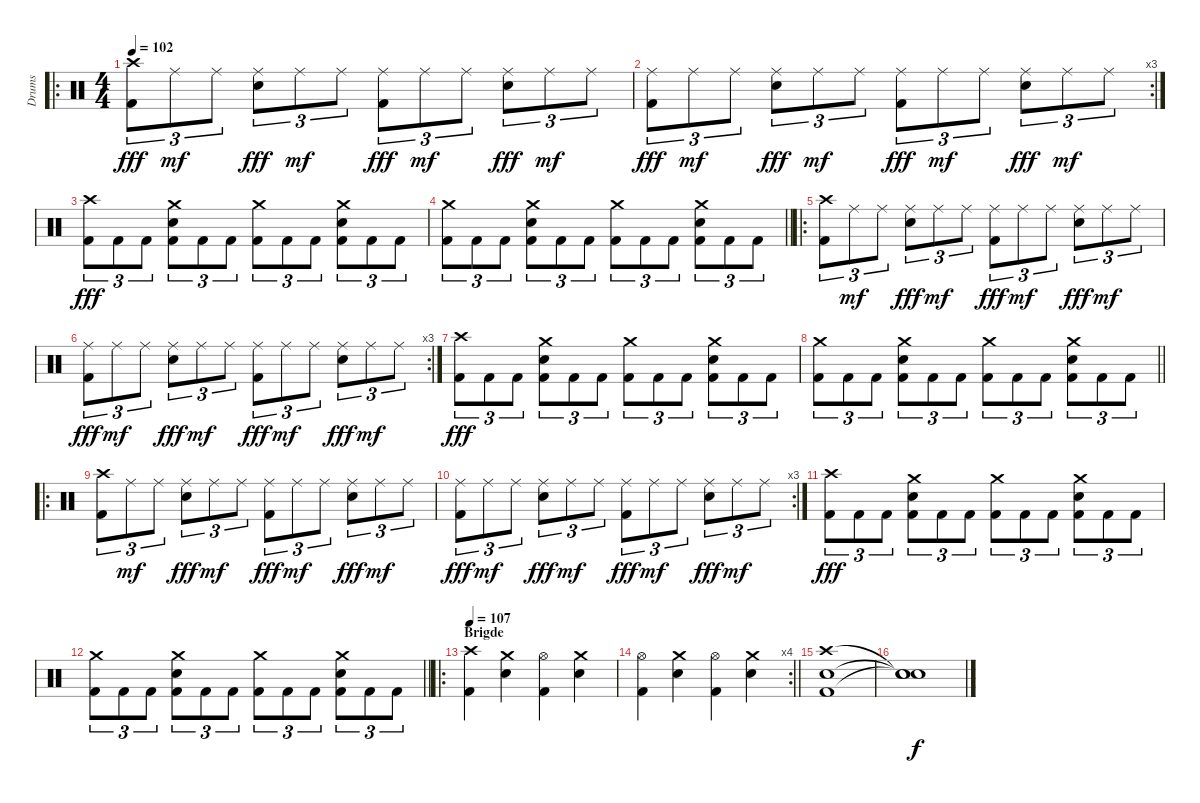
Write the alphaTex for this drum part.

\track ("Drums" "Drums") {instrument percussion}
\staff {score}
\articulation defaults
\ro
\ts (4 4)
\tempo 102
\clef neutral
\ks c
("Crash high (hit)" "Kick (hit) 2").8{tu (3 2) dy fff} "Ride (middle)".8{tu (3 2) dy mf} "Ride (middle)".8{tu (3 2)} ("Ride (middle)" "Electric Snare (hit)").8{tu (3 2) dy fff} "Ride (middle)".8{tu (3 2) dy mf} "Ride (middle)".8{tu (3 2)} ("Ride (middle)" "Kick (hit) 2").8{tu (3 2) dy fff} "Ride (middle)".8{tu (3 2) dy mf} "Ride (middle)".8{tu (3 2)} ("Ride (middle)" "Electric Snare (hit)").8{tu (3 2) dy fff} "Ride (middle)".8{tu (3 2) dy mf} "Ride (middle)".8{tu (3 2)} |
\rc 3
("Ride (middle)" "Kick (hit) 2").8{tu (3 2) dy fff} "Ride (middle)".8{tu (3 2) dy mf} "Ride (middle)".8{tu (3 2)} ("Ride (middle)" "Electric Snare (hit)").8{tu (3 2) dy fff} "Ride (middle)".8{tu (3 2) dy mf} "Ride (middle)".8{tu (3 2)} ("Ride (middle)" "Kick (hit) 2").8{tu (3 2) dy fff} "Ride (middle)".8{tu (3 2) dy mf} "Ride (middle)".8{tu (3 2)} ("Ride (middle)" "Electric Snare (hit)").8{tu (3 2) dy fff} "Ride (middle)".8{tu (3 2) dy mf} "Ride (middle)".8{tu (3 2)} |
("Crash high (hit)" "Kick (hit) 2").8{tu (3 2) dy fff} "Kick (hit) 2".8{tu (3 2)} "Kick (hit) 2".8{tu (3 2)} ("Crash medium (hit)" "Electric Snare (hit)" "Kick (hit) 2").8{tu (3 2)} "Kick (hit) 2".8{tu (3 2)} "Kick (hit) 2".8{tu (3 2)} ("Crash medium (hit)" "Kick (hit) 2").8{tu (3 2)} "Kick (hit) 2".8{tu (3 2)} "Kick (hit) 2".8{tu (3 2)} ("Crash medium (hit)" "Electric Snare (hit)" "Kick (hit) 2").8{tu (3 2)} "Kick (hit) 2".8{tu (3 2)} "Kick (hit) 2".8{tu (3 2)} |
\barLineRight lightlight
("Crash medium (hit)" "Kick (hit) 2").8{tu (3 2)} "Kick (hit) 2".8{tu (3 2)} "Kick (hit) 2".8{tu (3 2)} ("Crash medium (hit)" "Electric Snare (hit)" "Kick (hit) 2").8{tu (3 2)} "Kick (hit) 2".8{tu (3 2)} "Kick (hit) 2".8{tu (3 2)} ("Crash medium (hit)" "Kick (hit) 2").8{tu (3 2)} "Kick (hit) 2".8{tu (3 2)} "Kick (hit) 2".8{tu (3 2)} ("Crash medium (hit)" "Electric Snare (hit)" "Kick (hit) 2").8{tu (3 2)} "Kick (hit) 2".8{tu (3 2)} "Kick (hit) 2".8{tu (3 2)} |
\ro
("Crash high (hit)" "Kick (hit) 2").8{tu (3 2)} "Ride (middle)".8{tu (3 2) dy mf} "Ride (middle)".8{tu (3 2)} ("Ride (middle)" "Electric Snare (hit)").8{tu (3 2) dy fff} "Ride (middle)".8{tu (3 2) dy mf} "Ride (middle)".8{tu (3 2)} ("Ride (middle)" "Kick (hit) 2").8{tu (3 2) dy fff} "Ride (middle)".8{tu (3 2) dy mf} "Ride (middle)".8{tu (3 2)} ("Ride (middle)" "Electric Snare (hit)").8{tu (3 2) dy fff} "Ride (middle)".8{tu (3 2) dy mf} "Ride (middle)".8{tu (3 2)} |
\rc 3
("Ride (middle)" "Kick (hit) 2").8{tu (3 2) dy fff} "Ride (middle)".8{tu (3 2) dy mf} "Ride (middle)".8{tu (3 2)} ("Ride (middle)" "Electric Snare (hit)").8{tu (3 2) dy fff} "Ride (middle)".8{tu (3 2) dy mf} "Ride (middle)".8{tu (3 2)} ("Ride (middle)" "Kick (hit) 2").8{tu (3 2) dy fff} "Ride (middle)".8{tu (3 2) dy mf} "Ride (middle)".8{tu (3 2)} ("Ride (middle)" "Electric Snare (hit)").8{tu (3 2) dy fff} "Ride (middle)".8{tu (3 2) dy mf} "Ride (middle)".8{tu (3 2)} |
("Crash high (hit)" "Kick (hit) 2").8{tu (3 2) dy fff} "Kick (hit) 2".8{tu (3 2)} "Kick (hit) 2".8{tu (3 2)} ("Crash medium (hit)" "Electric Snare (hit)" "Kick (hit) 2").8{tu (3 2)} "Kick (hit) 2".8{tu (3 2)} "Kick (hit) 2".8{tu (3 2)} ("Crash medium (hit)" "Kick (hit) 2").8{tu (3 2)} "Kick (hit) 2".8{tu (3 2)} "Kick (hit) 2".8{tu (3 2)} ("Crash medium (hit)" "Electric Snare (hit)" "Kick (hit) 2").8{tu (3 2)} "Kick (hit) 2".8{tu (3 2)} "Kick (hit) 2".8{tu (3 2)} |
\barLineRight lightlight
("Crash medium (hit)" "Kick (hit) 2").8{tu (3 2)} "Kick (hit) 2".8{tu (3 2)} "Kick (hit) 2".8{tu (3 2)} ("Crash medium (hit)" "Electric Snare (hit)" "Kick (hit) 2").8{tu (3 2)} "Kick (hit) 2".8{tu (3 2)} "Kick (hit) 2".8{tu (3 2)} ("Crash medium (hit)" "Kick (hit) 2").8{tu (3 2)} "Kick (hit) 2".8{tu (3 2)} "Kick (hit) 2".8{tu (3 2)} ("Crash medium (hit)" "Electric Snare (hit)" "Kick (hit) 2").8{tu (3 2)} "Kick (hit) 2".8{tu (3 2)} "Kick (hit) 2".8{tu (3 2)} |
\ro
("Crash high (hit)" "Kick (hit) 2").8{tu (3 2)} "Ride (middle)".8{tu (3 2) dy mf} "Ride (middle)".8{tu (3 2)} ("Ride (middle)" "Electric Snare (hit)").8{tu (3 2) dy fff} "Ride (middle)".8{tu (3 2) dy mf} "Ride (middle)".8{tu (3 2)} ("Ride (middle)" "Kick (hit) 2").8{tu (3 2) dy fff} "Ride (middle)".8{tu (3 2) dy mf} "Ride (middle)".8{tu (3 2)} ("Ride (middle)" "Electric Snare (hit)").8{tu (3 2) dy fff} "Ride (middle)".8{tu (3 2) dy mf} "Ride (middle)".8{tu (3 2)} |
\rc 3
("Ride (middle)" "Kick (hit) 2").8{tu (3 2) dy fff} "Ride (middle)".8{tu (3 2) dy mf} "Ride (middle)".8{tu (3 2)} ("Ride (middle)" "Electric Snare (hit)").8{tu (3 2) dy fff} "Ride (middle)".8{tu (3 2) dy mf} "Ride (middle)".8{tu (3 2)} ("Ride (middle)" "Kick (hit) 2").8{tu (3 2) dy fff} "Ride (middle)".8{tu (3 2) dy mf} "Ride (middle)".8{tu (3 2)} ("Ride (middle)" "Electric Snare (hit)").8{tu (3 2) dy fff} "Ride (middle)".8{tu (3 2) dy mf} "Ride (middle)".8{tu (3 2)} |
("Crash high (hit)" "Kick (hit) 2").8{tu (3 2) dy fff} "Kick (hit) 2".8{tu (3 2)} "Kick (hit) 2".8{tu (3 2)} ("Crash medium (hit)" "Electric Snare (hit)" "Kick (hit) 2").8{tu (3 2)} "Kick (hit) 2".8{tu (3 2)} "Kick (hit) 2".8{tu (3 2)} ("Crash medium (hit)" "Kick (hit) 2").8{tu (3 2)} "Kick (hit) 2".8{tu (3 2)} "Kick (hit) 2".8{tu (3 2)} ("Crash medium (hit)" "Electric Snare (hit)" "Kick (hit) 2").8{tu (3 2)} "Kick (hit) 2".8{tu (3 2)} "Kick (hit) 2".8{tu (3 2)} |
\barLineRight lightlight
("Crash medium (hit)" "Kick (hit) 2").8{tu (3 2)} "Kick (hit) 2".8{tu (3 2)} "Kick (hit) 2".8{tu (3 2)} ("Crash medium (hit)" "Electric Snare (hit)" "Kick (hit) 2").8{tu (3 2)} "Kick (hit) 2".8{tu (3 2)} "Kick (hit) 2".8{tu (3 2)} ("Crash medium (hit)" "Kick (hit) 2").8{tu (3 2)} "Kick (hit) 2".8{tu (3 2)} "Kick (hit) 2".8{tu (3 2)} ("Crash medium (hit)" "Electric Snare (hit)" "Kick (hit) 2").8{tu (3 2)} "Kick (hit) 2".8{tu (3 2)} "Kick (hit) 2".8{tu (3 2)} |
\ro
\section ("" "Brigde")
\tempo 107
("Crash high (hit)" "Kick (hit) 2").4 ("Crash medium (hit)" "Electric Snare (hit)").4 ("Hi-Hat (open)" "Kick (hit) 2").4 ("Crash medium (hit)" "Electric Snare (hit)").4 |
\rc 4
\barLineRight lightlight
("Hi-Hat (open)" "Kick (hit) 2").4 ("Crash medium (hit)" "Electric Snare (hit)").4 ("Hi-Hat (open)" "Kick (hit) 2").4 ("Crash medium (hit)" "Electric Snare (hit)").4 |
("Crash high (hit)" "Electric Snare (hit)" "Kick (hit) 2").1 |
("Snare (hit)"{t} "Snare (hit)"{t} "Snare (hit)"{t}).1{dy f}
